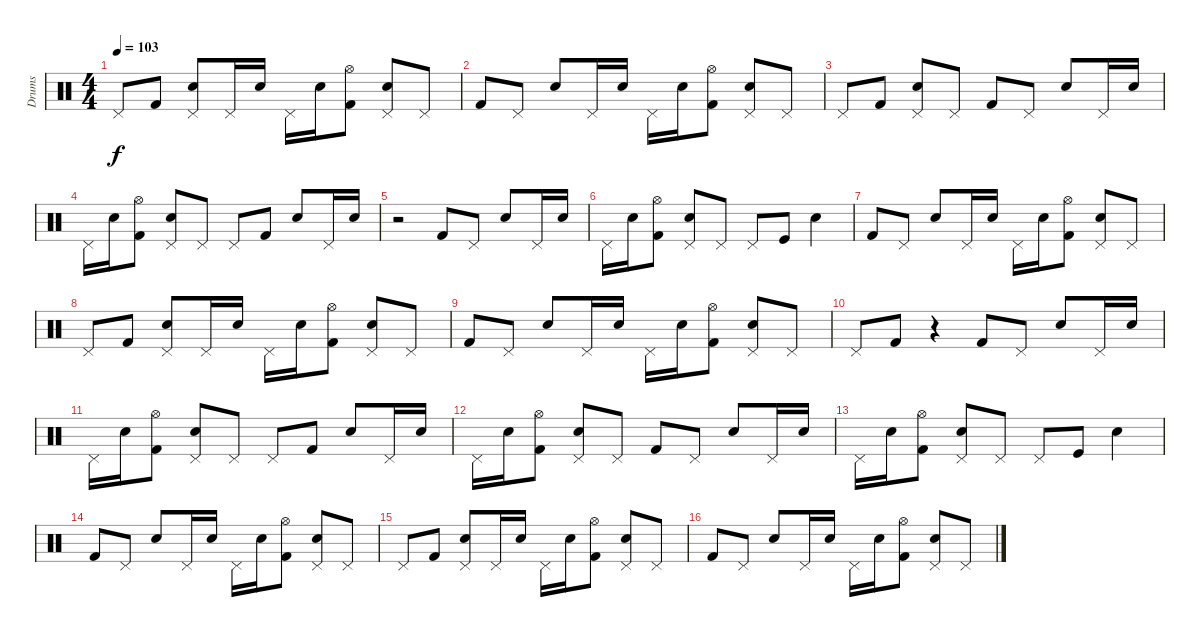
\track ("Drums" "Drums") {instrument percussion}
\staff {score}
\articulation defaults
\ts (4 4)
\tempo 103
\clef neutral
\ks c "Pedal Hi-Hat (hit)".8{dy f} "Kick (hit) 2".8
("Pedal Hi-Hat (hit)" "Electric Snare (hit)").8 "Pedal Hi-Hat (hit)".16 "Electric Snare (hit)".16 "Pedal Hi-Hat (hit)".16 "Electric Snare (hit)".16 ("Hi-Hat (open)" "Kick (hit) 2").8 ("Pedal Hi-Hat (hit)" "Electric Snare (hit)").8 "Pedal Hi-Hat (hit)".8 |
"Kick (hit) 2".8 "Pedal Hi-Hat (hit)".8 "Electric Snare (hit)".8 "Pedal Hi-Hat (hit)".16 "Electric Snare (hit)".16 "Pedal Hi-Hat (hit)".16 "Electric Snare (hit)".16 ("Hi-Hat (open)" "Kick (hit) 2").8 ("Pedal Hi-Hat (hit)" "Electric Snare (hit)").8 "Pedal Hi-Hat (hit)".8 |
"Pedal Hi-Hat (hit)".8 "Kick (hit) 2".8 ("Pedal Hi-Hat (hit)" "Electric Snare (hit)").8 "Pedal Hi-Hat (hit)".8 "Kick (hit) 2".8 "Pedal Hi-Hat (hit)".8 "Electric Snare (hit)".8 "Pedal Hi-Hat (hit)".16 "Electric Snare (hit)".16 |
"Pedal Hi-Hat (hit)".16 "Electric Snare (hit)".16 ("Hi-Hat (open)" "Kick (hit) 2").8 ("Pedal Hi-Hat (hit)" "Electric Snare (hit)").8 "Pedal Hi-Hat (hit)".8 "Pedal Hi-Hat (hit)".8 "Kick (hit) 2".8 "Electric Snare (hit)".8 "Pedal Hi-Hat (hit)".16 "Electric Snare (hit)".16 |
r.2 "Kick (hit) 2".8 "Pedal Hi-Hat (hit)".8 "Electric Snare (hit)".8 "Pedal Hi-Hat (hit)".16 "Electric Snare (hit)".16 |
"Pedal Hi-Hat (hit)".16 "Electric Snare (hit)".16 ("Hi-Hat (open)" "Kick (hit) 2").8 ("Pedal Hi-Hat (hit)" "Electric Snare (hit)").8 "Pedal Hi-Hat (hit)".8 "Pedal Hi-Hat (hit)".8 "Kick (hit)".8 "Electric Snare (hit)".4 |
"Kick (hit) 2".8 "Pedal Hi-Hat (hit)".8 "Electric Snare (hit)".8 "Pedal Hi-Hat (hit)".16 "Electric Snare (hit)".16 "Pedal Hi-Hat (hit)".16 "Electric Snare (hit)".16 ("Hi-Hat (open)" "Kick (hit) 2").8 ("Pedal Hi-Hat (hit)" "Electric Snare (hit)").8 "Pedal Hi-Hat (hit)".8 |
"Pedal Hi-Hat (hit)".8 "Kick (hit) 2".8 ("Pedal Hi-Hat (hit)" "Electric Snare (hit)").8 "Pedal Hi-Hat (hit)".16 "Electric Snare (hit)".16 "Pedal Hi-Hat (hit)".16 "Electric Snare (hit)".16 ("Hi-Hat (open)" "Kick (hit) 2").8 ("Pedal Hi-Hat (hit)" "Electric Snare (hit)").8 "Pedal Hi-Hat (hit)".8 |
"Kick (hit) 2".8 "Pedal Hi-Hat (hit)".8 "Electric Snare (hit)".8 "Pedal Hi-Hat (hit)".16 "Electric Snare (hit)".16 "Pedal Hi-Hat (hit)".16 "Electric Snare (hit)".16 ("Hi-Hat (open)" "Kick (hit) 2").8 ("Pedal Hi-Hat (hit)" "Electric Snare (hit)").8 "Pedal Hi-Hat (hit)".8 |
"Pedal Hi-Hat (hit)".8 "Kick (hit) 2".8 r.4 "Kick (hit) 2".8 "Pedal Hi-Hat (hit)".8 "Electric Snare (hit)".8 "Pedal Hi-Hat (hit)".16 "Electric Snare (hit)".16 |
"Pedal Hi-Hat (hit)".16 "Electric Snare (hit)".16 ("Hi-Hat (open)" "Kick (hit) 2").8 ("Pedal Hi-Hat (hit)" "Electric Snare (hit)").8 "Pedal Hi-Hat (hit)".8 "Pedal Hi-Hat (hit)".8 "Kick (hit) 2".8 "Electric Snare (hit)".8 "Pedal Hi-Hat (hit)".16 "Electric Snare (hit)".16 |
"Pedal Hi-Hat (hit)".16 "Electric Snare (hit)".16 ("Hi-Hat (open)" "Kick (hit) 2").8 ("Pedal Hi-Hat (hit)" "Electric Snare (hit)").8 "Pedal Hi-Hat (hit)".8 "Kick (hit) 2".8 "Pedal Hi-Hat (hit)".8 "Electric Snare (hit)".8 "Pedal Hi-Hat (hit)".16 "Electric Snare (hit)".16 |
"Pedal Hi-Hat (hit)".16 "Electric Snare (hit)".16 ("Hi-Hat (open)" "Kick (hit) 2").8 ("Pedal Hi-Hat (hit)" "Electric Snare (hit)").8 "Pedal Hi-Hat (hit)".8 "Pedal Hi-Hat (hit)".8 "Kick (hit)".8 "Electric Snare (hit)".4 |
"Kick (hit) 2".8 "Pedal Hi-Hat (hit)".8 "Electric Snare (hit)".8 "Pedal Hi-Hat (hit)".16 "Electric Snare (hit)".16 "Pedal Hi-Hat (hit)".16 "Electric Snare (hit)".16 ("Hi-Hat (open)" "Kick (hit) 2").8 ("Pedal Hi-Hat (hit)" "Electric Snare (hit)").8 "Pedal Hi-Hat (hit)".8 |
"Pedal Hi-Hat (hit)".8 "Kick (hit) 2".8 ("Pedal Hi-Hat (hit)" "Electric Snare (hit)").8 "Pedal Hi-Hat (hit)".16 "Electric Snare (hit)".16 "Pedal Hi-Hat (hit)".16 "Electric Snare (hit)".16 ("Hi-Hat (open)" "Kick (hit) 2").8 ("Pedal Hi-Hat (hit)" "Electric Snare (hit)").8 "Pedal Hi-Hat (hit)".8 |
"Kick (hit) 2".8 "Pedal Hi-Hat (hit)".8 "Electric Snare (hit)".8 "Pedal Hi-Hat (hit)".16 "Electric Snare (hit)".16 "Pedal Hi-Hat (hit)".16 "Electric Snare (hit)".16 ("Hi-Hat (open)" "Kick (hit) 2").8 ("Pedal Hi-Hat (hit)" "Electric Snare (hit)").8 "Pedal Hi-Hat (hit)".8
